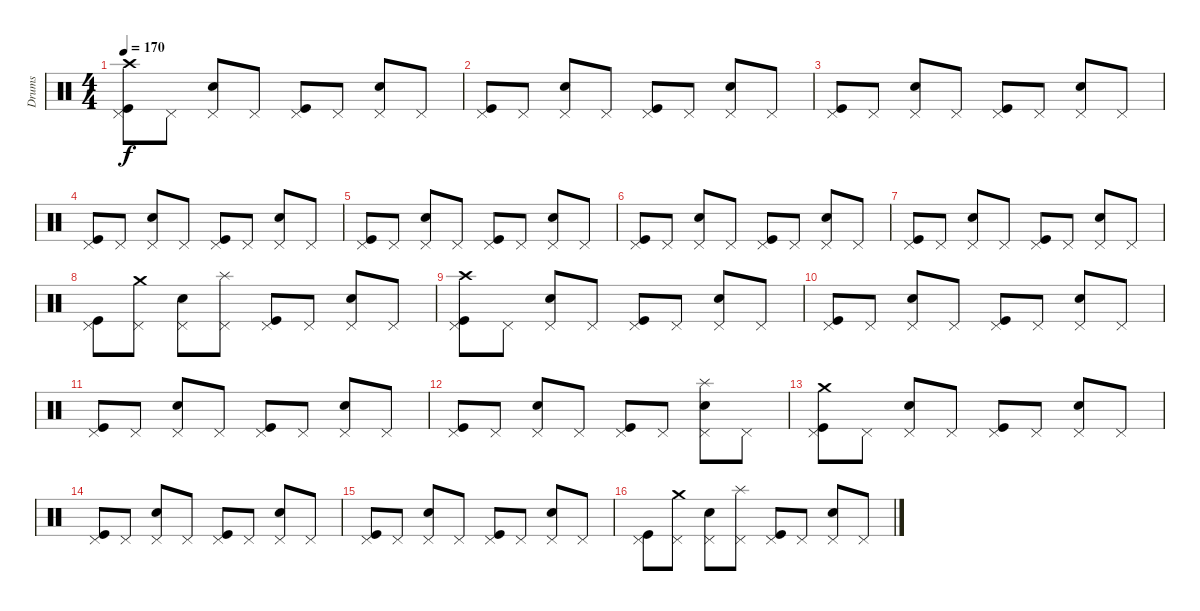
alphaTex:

\track ("Drums" "Drums") {instrument percussion}
\staff {score}
\articulation defaults
\ts (4 4)
\tempo 170
\clef neutral
\ks c
("Crash high (hit)" "Pedal Hi-Hat (hit)" "Kick (hit)").8{dy f} "Pedal Hi-Hat (hit)".8 ("Pedal Hi-Hat (hit)" "Electric Snare (hit)").8 "Pedal Hi-Hat (hit)".8 ("Pedal Hi-Hat (hit)" "Kick (hit)").8 "Pedal Hi-Hat (hit)".8 ("Pedal Hi-Hat (hit)" "Electric Snare (hit)").8 "Pedal Hi-Hat (hit)".8 |
("Pedal Hi-Hat (hit)" "Kick (hit)").8 "Pedal Hi-Hat (hit)".8 ("Pedal Hi-Hat (hit)" "Electric Snare (hit)").8 "Pedal Hi-Hat (hit)".8 ("Pedal Hi-Hat (hit)" "Kick (hit)").8 "Pedal Hi-Hat (hit)".8 ("Pedal Hi-Hat (hit)" "Electric Snare (hit)").8 "Pedal Hi-Hat (hit)".8 |
("Pedal Hi-Hat (hit)" "Kick (hit)").8 "Pedal Hi-Hat (hit)".8 ("Pedal Hi-Hat (hit)" "Electric Snare (hit)").8 "Pedal Hi-Hat (hit)".8 ("Pedal Hi-Hat (hit)" "Kick (hit)").8 "Pedal Hi-Hat (hit)".8 ("Pedal Hi-Hat (hit)" "Electric Snare (hit)").8 "Pedal Hi-Hat (hit)".8 |
("Pedal Hi-Hat (hit)" "Kick (hit)").8 "Pedal Hi-Hat (hit)".8 ("Pedal Hi-Hat (hit)" "Electric Snare (hit)").8 "Pedal Hi-Hat (hit)".8 ("Pedal Hi-Hat (hit)" "Kick (hit)").8 "Pedal Hi-Hat (hit)".8 ("Pedal Hi-Hat (hit)" "Electric Snare (hit)").8 "Pedal Hi-Hat (hit)".8 |
("Pedal Hi-Hat (hit)" "Kick (hit)").8 "Pedal Hi-Hat (hit)".8 ("Pedal Hi-Hat (hit)" "Electric Snare (hit)").8 "Pedal Hi-Hat (hit)".8 ("Pedal Hi-Hat (hit)" "Kick (hit)").8 "Pedal Hi-Hat (hit)".8 ("Pedal Hi-Hat (hit)" "Electric Snare (hit)").8 "Pedal Hi-Hat (hit)".8 |
("Pedal Hi-Hat (hit)" "Kick (hit)").8 "Pedal Hi-Hat (hit)".8 ("Pedal Hi-Hat (hit)" "Electric Snare (hit)").8 "Pedal Hi-Hat (hit)".8 ("Pedal Hi-Hat (hit)" "Kick (hit)").8 "Pedal Hi-Hat (hit)".8 ("Pedal Hi-Hat (hit)" "Electric Snare (hit)").8 "Pedal Hi-Hat (hit)".8 |
("Pedal Hi-Hat (hit)" "Kick (hit)").8 "Pedal Hi-Hat (hit)".8 ("Pedal Hi-Hat (hit)" "Electric Snare (hit)").8 "Pedal Hi-Hat (hit)".8 ("Pedal Hi-Hat (hit)" "Kick (hit)").8 "Pedal Hi-Hat (hit)".8 ("Pedal Hi-Hat (hit)" "Electric Snare (hit)").8 "Pedal Hi-Hat (hit)".8 |
("Pedal Hi-Hat (hit)" "Kick (hit)").8 ("Crash medium (hit)" "Pedal Hi-Hat (hit)").8 ("Pedal Hi-Hat (hit)" "Electric Snare (hit)").8 ("Splash (hit)" "Pedal Hi-Hat (hit)").8 ("Pedal Hi-Hat (hit)" "Kick (hit)").8 "Pedal Hi-Hat (hit)".8 ("Pedal Hi-Hat (hit)" "Electric Snare (hit)").8 "Pedal Hi-Hat (hit)".8 |
("Crash high (hit)" "Pedal Hi-Hat (hit)" "Kick (hit)").8 "Pedal Hi-Hat (hit)".8 ("Pedal Hi-Hat (hit)" "Electric Snare (hit)").8 "Pedal Hi-Hat (hit)".8 ("Pedal Hi-Hat (hit)" "Kick (hit)").8 "Pedal Hi-Hat (hit)".8 ("Pedal Hi-Hat (hit)" "Electric Snare (hit)").8 "Pedal Hi-Hat (hit)".8 |
("Pedal Hi-Hat (hit)" "Kick (hit)").8 "Pedal Hi-Hat (hit)".8 ("Pedal Hi-Hat (hit)" "Electric Snare (hit)").8 "Pedal Hi-Hat (hit)".8 ("Pedal Hi-Hat (hit)" "Kick (hit)").8 "Pedal Hi-Hat (hit)".8 ("Pedal Hi-Hat (hit)" "Electric Snare (hit)").8 "Pedal Hi-Hat (hit)".8 |
("Pedal Hi-Hat (hit)" "Kick (hit)").8 "Pedal Hi-Hat (hit)".8 ("Pedal Hi-Hat (hit)" "Electric Snare (hit)").8 "Pedal Hi-Hat (hit)".8 ("Pedal Hi-Hat (hit)" "Kick (hit)").8 "Pedal Hi-Hat (hit)".8 ("Pedal Hi-Hat (hit)" "Electric Snare (hit)").8 "Pedal Hi-Hat (hit)".8 |
("Pedal Hi-Hat (hit)" "Kick (hit)").8 "Pedal Hi-Hat (hit)".8 ("Pedal Hi-Hat (hit)" "Electric Snare (hit)").8 "Pedal Hi-Hat (hit)".8 ("Pedal Hi-Hat (hit)" "Kick (hit)").8 "Pedal Hi-Hat (hit)".8 ("Splash (hit)" "Pedal Hi-Hat (hit)" "Electric Snare (hit)").8 "Pedal Hi-Hat (hit)".8 |
("Crash medium (hit)" "Pedal Hi-Hat (hit)" "Kick (hit)").8 "Pedal Hi-Hat (hit)".8 ("Pedal Hi-Hat (hit)" "Electric Snare (hit)").8 "Pedal Hi-Hat (hit)".8 ("Pedal Hi-Hat (hit)" "Kick (hit)").8 "Pedal Hi-Hat (hit)".8 ("Pedal Hi-Hat (hit)" "Electric Snare (hit)").8 "Pedal Hi-Hat (hit)".8 |
("Pedal Hi-Hat (hit)" "Kick (hit)").8 "Pedal Hi-Hat (hit)".8 ("Pedal Hi-Hat (hit)" "Electric Snare (hit)").8 "Pedal Hi-Hat (hit)".8 ("Pedal Hi-Hat (hit)" "Kick (hit)").8 "Pedal Hi-Hat (hit)".8 ("Pedal Hi-Hat (hit)" "Electric Snare (hit)").8 "Pedal Hi-Hat (hit)".8 |
("Pedal Hi-Hat (hit)" "Kick (hit)").8 "Pedal Hi-Hat (hit)".8 ("Pedal Hi-Hat (hit)" "Electric Snare (hit)").8 "Pedal Hi-Hat (hit)".8 ("Pedal Hi-Hat (hit)" "Kick (hit)").8 "Pedal Hi-Hat (hit)".8 ("Pedal Hi-Hat (hit)" "Electric Snare (hit)").8 "Pedal Hi-Hat (hit)".8 |
("Pedal Hi-Hat (hit)" "Kick (hit)").8 ("Crash medium (hit)" "Pedal Hi-Hat (hit)").8 ("Pedal Hi-Hat (hit)" "Electric Snare (hit)").8 ("Splash (hit)" "Pedal Hi-Hat (hit)").8 ("Pedal Hi-Hat (hit)" "Kick (hit)").8 "Pedal Hi-Hat (hit)".8 ("Pedal Hi-Hat (hit)" "Electric Snare (hit)").8 "Pedal Hi-Hat (hit)".8
